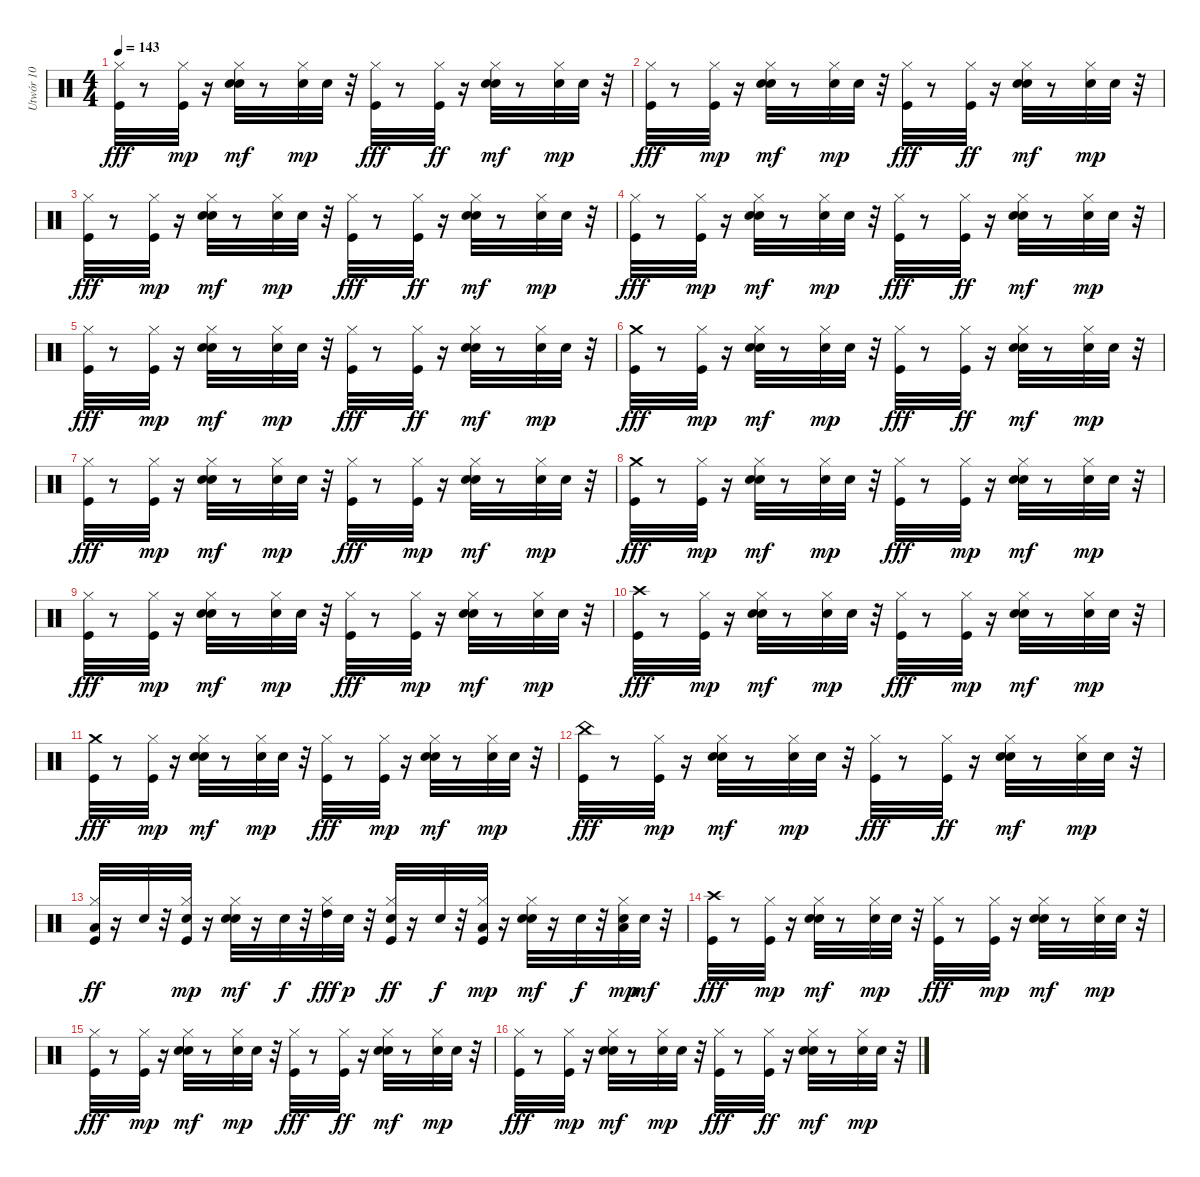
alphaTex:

\track ("Utwór 10" "Utwór 10") {instrument percussion}
\staff {score}
\articulation defaults
\ts (4 4)
\tempo 143
\clef neutral
\ks c
("Kick (hit)" "Hi-Hat (closed)").32{dy fff} r.8 ("Hi-Hat (closed)" "Kick (hit)").32{dy mp} r.16 ("Snare (hit) 2" "Hi-Hat (closed)" "Hand Clap (hit)").32{dy mf} r.8 ("Hi-Hat (closed)" "Snare (hit) 2").32{dy mp} "Hand Clap (hit)".32 r.32 ("Kick (hit)" "Hi-Hat (closed)").32{dy fff} r.8 ("Hi-Hat (closed)" "Kick (hit)").32{dy ff} r.16 ("Snare (hit) 2" "Hi-Hat (closed)" "Hand Clap (hit)").32{dy mf} r.8 ("Snare (hit) 2" "Hi-Hat (closed)").32{dy mp} "Hand Clap (hit)".32 r.32 |
("Hi-Hat (closed)" "Kick (hit)").32{dy fff} r.8 ("Kick (hit)" "Hi-Hat (closed)").32{dy mp} r.16 ("Snare (hit) 2" "Hi-Hat (closed)" "Hand Clap (hit)").32{dy mf} r.8 ("Snare (hit) 2" "Hi-Hat (closed)").32{dy mp} "Hand Clap (hit)".32 r.32 ("Kick (hit)" "Hi-Hat (closed)").32{dy fff} r.8 ("Hi-Hat (closed)" "Kick (hit)").32{dy ff} r.16 ("Hi-Hat (closed)" "Snare (hit) 2" "Hand Clap (hit)").32{dy mf} r.8 ("Hi-Hat (closed)" "Snare (hit) 2").32{dy mp} "Hand Clap (hit)".32 r.32 |
("Hi-Hat (closed)" "Kick (hit)").32{dy fff} r.8 ("Kick (hit)" "Hi-Hat (closed)").32{dy mp} r.16 ("Hi-Hat (closed)" "Snare (hit) 2" "Hand Clap (hit)").32{dy mf} r.8 ("Snare (hit) 2" "Hi-Hat (closed)").32{dy mp} "Hand Clap (hit)".32 r.32 ("Kick (hit)" "Hi-Hat (closed)").32{dy fff} r.8 ("Hi-Hat (closed)" "Kick (hit)").32{dy ff} r.16 ("Snare (hit) 2" "Hi-Hat (closed)" "Hand Clap (hit)").32{dy mf} r.8 ("Hi-Hat (closed)" "Snare (hit) 2").32{dy mp} "Hand Clap (hit)".32 r.32 |
("Kick (hit)" "Hi-Hat (closed)").32{dy fff} r.8 ("Kick (hit)" "Hi-Hat (closed)").32{dy mp} r.16 ("Snare (hit) 2" "Hi-Hat (closed)" "Hand Clap (hit)").32{dy mf} r.8 ("Hi-Hat (closed)" "Snare (hit) 2").32{dy mp} "Hand Clap (hit)".32 r.32 ("Kick (hit)" "Hi-Hat (closed)").32{dy fff} r.8 ("Hi-Hat (closed)" "Kick (hit)").32{dy ff} r.16 ("Hi-Hat (closed)" "Snare (hit) 2" "Hand Clap (hit)").32{dy mf} r.8 ("Hi-Hat (closed)" "Snare (hit) 2").32{dy mp} "Hand Clap (hit)".32 r.32 |
("Hi-Hat (closed)" "Kick (hit)").32{dy fff} r.8 ("Kick (hit)" "Hi-Hat (closed)").32{dy mp} r.16 ("Hi-Hat (closed)" "Snare (hit) 2" "Hand Clap (hit)").32{dy mf} r.8 ("Hi-Hat (closed)" "Snare (hit) 2").32{dy mp} "Hand Clap (hit)".32 r.32 ("Hi-Hat (closed)" "Kick (hit)").32{dy fff} r.8 ("Hi-Hat (closed)" "Kick (hit)").32{dy ff} r.16 ("Hi-Hat (closed)" "Snare (hit) 2" "Hand Clap (hit)").32{dy mf} r.8 ("Snare (hit) 2" "Hi-Hat (closed)").32{dy mp} "Hand Clap (hit)".32 r.32 |
("Crash medium (hit)" "Kick (hit)").32{dy fff} r.8 ("Hi-Hat (closed)" "Kick (hit)").32{dy mp} r.16 ("Snare (hit) 2" "Hi-Hat (closed)" "Hand Clap (hit)").32{dy mf} r.8 ("Hi-Hat (closed)" "Snare (hit) 2").32{dy mp} "Hand Clap (hit)".32 r.32 ("Kick (hit)" "Hi-Hat (closed)").32{dy fff} r.8 ("Hi-Hat (closed)" "Kick (hit)").32{dy ff} r.16 ("Snare (hit) 2" "Hi-Hat (closed)" "Hand Clap (hit)").32{dy mf} r.8 ("Hi-Hat (closed)" "Snare (hit) 2").32{dy mp} "Hand Clap (hit)".32 r.32 |
("Kick (hit)" "Hi-Hat (closed)").32{dy fff} r.8 ("Kick (hit)" "Hi-Hat (closed)").32{dy mp} r.16 ("Hi-Hat (closed)" "Snare (hit) 2" "Hand Clap (hit)").32{dy mf} r.8 ("Snare (hit) 2" "Hi-Hat (closed)").32{dy mp} "Hand Clap (hit)".32 r.32 ("Hi-Hat (closed)" "Kick (hit)").32{dy fff} r.8 ("Kick (hit)" "Hi-Hat (closed)").32{dy mp} r.16 ("Hi-Hat (closed)" "Snare (hit) 2" "Hand Clap (hit)").32{dy mf} r.8 ("Hi-Hat (closed)" "Snare (hit) 2").32{dy mp} "Hand Clap (hit)".32 r.32 |
("Crash medium (hit)" "Kick (hit)").32{dy fff} r.8 ("Hi-Hat (closed)" "Kick (hit)").32{dy mp} r.16 ("Snare (hit) 2" "Hi-Hat (closed)" "Hand Clap (hit)").32{dy mf} r.8 ("Snare (hit) 2" "Hi-Hat (closed)").32{dy mp} "Hand Clap (hit)".32 r.32 ("Hi-Hat (closed)" "Kick (hit)").32{dy fff} r.8 ("Kick (hit)" "Hi-Hat (closed)").32{dy mp} r.16 ("Snare (hit) 2" "Hi-Hat (closed)" "Hand Clap (hit)").32{dy mf} r.8 ("Snare (hit) 2" "Hi-Hat (closed)").32{dy mp} "Hand Clap (hit)".32 r.32 |
("Kick (hit)" "Hi-Hat (closed)").32{dy fff} r.8 ("Kick (hit)" "Hi-Hat (closed)").32{dy mp} r.16 ("Hi-Hat (closed)" "Snare (hit) 2" "Hand Clap (hit)").32{dy mf} r.8 ("Snare (hit) 2" "Hi-Hat (closed)").32{dy mp} "Hand Clap (hit)".32 r.32 ("Kick (hit)" "Hi-Hat (closed)").32{dy fff} r.8 ("Kick (hit)" "Hi-Hat (closed)").32{dy mp} r.16 ("Snare (hit) 2" "Hi-Hat (closed)" "Hand Clap (hit)").32{dy mf} r.8 ("Snare (hit) 2" "Hi-Hat (closed)").32{dy mp} "Hand Clap (hit)".32 r.32 |
("Crash high (hit)" "Kick (hit)").32{dy fff} r.8 ("Kick (hit)" "Hi-Hat (closed)").32{dy mp} r.16 ("Hi-Hat (closed)" "Snare (hit) 2" "Hand Clap (hit)").32{dy mf} r.8 ("Snare (hit) 2" "Hi-Hat (closed)").32{dy mp} "Hand Clap (hit)".32 r.32 ("Hi-Hat (closed)" "Kick (hit)").32{dy fff} r.8 ("Kick (hit)" "Hi-Hat (closed)").32{dy mp} r.16 ("Snare (hit) 2" "Hi-Hat (closed)" "Hand Clap (hit)").32{dy mf} r.8 ("Snare (hit) 2" "Hi-Hat (closed)").32{dy mp} "Hand Clap (hit)".32 r.32 |
("Crash medium (hit)" "Kick (hit)").32{dy fff} r.8 ("Hi-Hat (closed)" "Kick (hit)").32{dy mp} r.16 ("Hi-Hat (closed)" "Snare (hit) 2" "Hand Clap (hit)").32{dy mf} r.8 ("Hi-Hat (closed)" "Snare (hit) 2").32{dy mp} "Hand Clap (hit)".32 r.32 ("Hi-Hat (closed)" "Kick (hit)").32{dy fff} r.8 ("Kick (hit)" "Hi-Hat (closed)").32{dy mp} r.16 ("Hi-Hat (closed)" "Snare (hit) 2" "Hand Clap (hit)").32{dy mf} r.8 ("Hi-Hat (closed)" "Snare (hit) 2").32{dy mp} "Hand Clap (hit)".32 r.32 |
("China (hit)" "Kick (hit)").32{dy fff} r.8 ("Kick (hit)" "Hi-Hat (closed)").32{dy mp} r.16 ("Hi-Hat (closed)" "Snare (hit) 2" "Hand Clap (hit)").32{dy mf} r.8 ("Snare (hit) 2" "Hi-Hat (closed)").32{dy mp} "Hand Clap (hit)".32 r.32 ("Kick (hit)" "Hi-Hat (closed)").32{dy fff} r.8 ("Hi-Hat (closed)" "Kick (hit)").32{dy ff} r.16 ("Snare (hit) 2" "Hi-Hat (closed)" "Hand Clap (hit)").32{dy mf} r.8 ("Snare (hit) 2" "Hi-Hat (closed)").32{dy mp} "Hand Clap (hit)".32 r.32 |
("Kick (hit)" "Hi-Hat (closed)" "Low Tom (hit)").32{dy ff} r.16 "Snare (hit) 2".32 r.32 ("Kick (hit)" "Snare (hit) 2" "Hi-Hat (closed)").32{dy mp} r.16 ("Snare (hit) 2" "Hi-Hat (closed)" "Hand Clap (hit)").32{dy mf} r.16 "Snare (hit) 2".32{dy f} r.32 ("Hi-Hat (closed)" "High Tom (hit)").32{dy fff} "Hand Clap (hit)".32{dy p} r.32 ("Kick (hit)" "Snare (hit) 2" "Hi-Hat (closed)").32{dy ff} r.16 "Snare (hit) 2".32{dy f} r.32 ("Kick (hit)" "Low Tom (hit)" "Hi-Hat (closed)").32{dy mp} r.16 ("Snare (hit) 2" "Hi-Hat (closed)" "Hand Clap (hit)").32{dy mf} r.16 "Snare (hit) 2".32{dy f} r.32 ("Snare (hit) 2" "Low Floor Tom (hit)" "Hi-Hat (closed)").32{dy mp} "Hand Clap (hit)".32{dy mf} r.32 |
("Kick (hit)" "Crash high (hit)").32{dy fff} r.8 ("Hi-Hat (closed)" "Kick (hit)").32{dy mp} r.16 ("Hi-Hat (closed)" "Snare (hit) 2" "Hand Clap (hit)").32{dy mf} r.8 ("Hi-Hat (closed)" "Snare (hit) 2").32{dy mp} "Hand Clap (hit)".32 r.32 ("Hi-Hat (closed)" "Kick (hit)").32{dy fff} r.8 ("Kick (hit)" "Hi-Hat (closed)").32{dy mp} r.16 ("Hi-Hat (closed)" "Snare (hit) 2" "Hand Clap (hit)").32{dy mf} r.8 ("Snare (hit) 2" "Hi-Hat (closed)").32{dy mp} "Hand Clap (hit)".32 r.32 |
("Hi-Hat (closed)" "Kick (hit)").32{dy fff} r.8 ("Hi-Hat (closed)" "Kick (hit)").32{dy mp} r.16 ("Hi-Hat (closed)" "Snare (hit) 2" "Hand Clap (hit)").32{dy mf} r.8 ("Hi-Hat (closed)" "Snare (hit) 2").32{dy mp} "Hand Clap (hit)".32 r.32 ("Kick (hit)" "Hi-Hat (closed)").32{dy fff} r.8 ("Hi-Hat (closed)" "Kick (hit)").32{dy ff} r.16 ("Snare (hit) 2" "Hi-Hat (closed)" "Hand Clap (hit)").32{dy mf} r.8 ("Hi-Hat (closed)" "Snare (hit) 2").32{dy mp} "Hand Clap (hit)".32 r.32 |
("Hi-Hat (closed)" "Kick (hit)").32{dy fff} r.8 ("Kick (hit)" "Hi-Hat (closed)").32{dy mp} r.16 ("Hi-Hat (closed)" "Snare (hit) 2" "Hand Clap (hit)").32{dy mf} r.8 ("Hi-Hat (closed)" "Snare (hit) 2").32{dy mp} "Hand Clap (hit)".32 r.32 ("Hi-Hat (closed)" "Kick (hit)").32{dy fff} r.8 ("Hi-Hat (closed)" "Kick (hit)").32{dy ff} r.16 ("Hi-Hat (closed)" "Snare (hit) 2" "Hand Clap (hit)").32{dy mf} r.8 ("Hi-Hat (closed)" "Snare (hit) 2").32{dy mp} "Hand Clap (hit)".32 r.32
